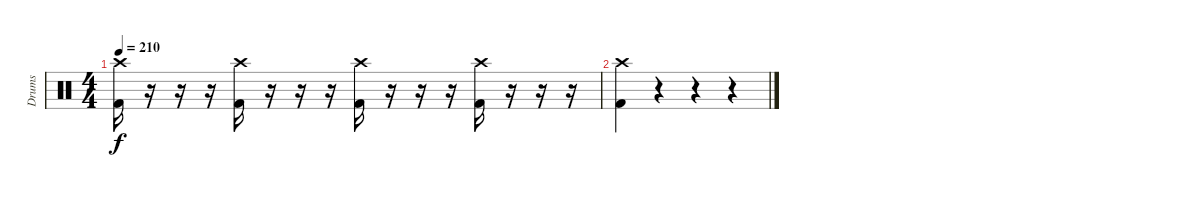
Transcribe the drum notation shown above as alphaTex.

\track ("Drums" "Drums") {instrument percussion}
\staff {score}
\articulation defaults
\ts (4 4)
\tempo 210
\clef neutral
\ks c
("Crash high (hit)" "Kick (hit) 2").16{dy f} r.16 r.16 r.16 ("Crash high (hit)" "Kick (hit) 2").16 r.16 r.16 r.16 ("Crash high (hit)" "Kick (hit) 2").16 r.16 r.16 r.16 ("Crash high (hit)" "Kick (hit) 2").16 r.16 r.16 r.16 |
("Crash high (hit)" "Kick (hit) 2").4 r.4 r.4 r.4
